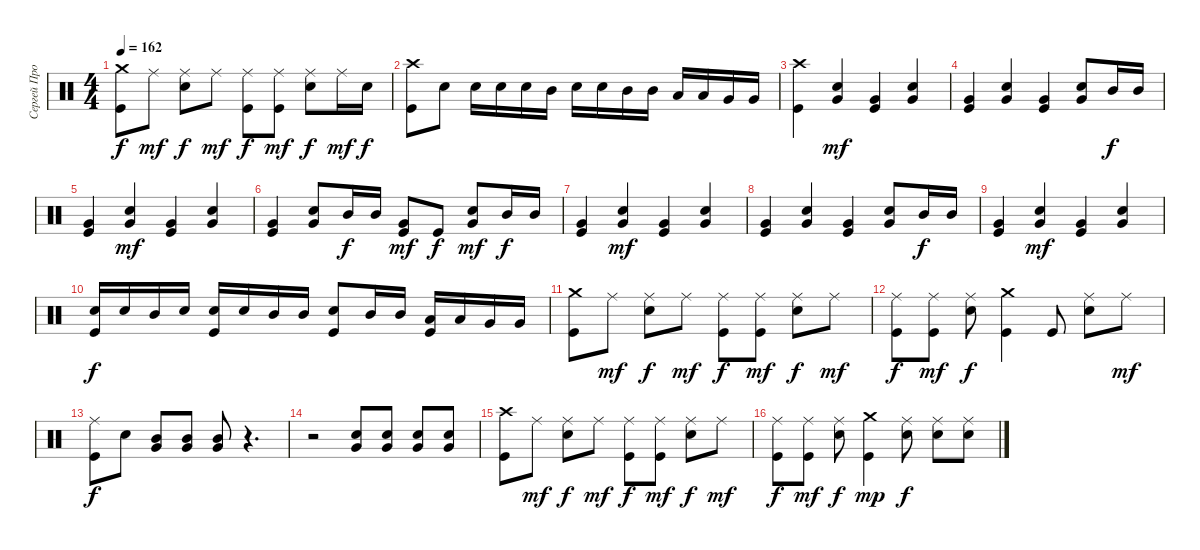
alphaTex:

\track ("Сергей Прокофьев" "Сергей Про") {instrument percussion}
\staff {score}
\articulation defaults
\ts (4 4)
\tempo 162
\clef neutral
\ks c
("Crash medium (hit)" "Kick (hit)").8{dy f} "Ride (middle)".8{dy mf} ("Ride (middle)" "Electric Snare (hit)").8{dy f} "Ride (middle)".8{dy mf} ("Ride (middle)" "Kick (hit)").8{dy f} ("Ride (middle)" "Kick (hit)").8{dy mf} ("Ride (middle)" "Electric Snare (hit)").8{dy f} "Ride (middle)".16{dy mf} "Electric Snare (hit)".16{dy f} |
("Crash high (hit)" "Kick (hit)").8 "Electric Snare (hit)".8 "Electric Snare (hit)".16 "Electric Snare (hit)".16 "Electric Snare (hit)".16 "Mid Tom (hit)".16 "Electric Snare (hit)".16 "Electric Snare (hit)".16 "Mid Tom (hit)".16 "Mid Tom (hit)".16 "Low Tom (hit)".16 "Low Tom (hit)".16 "Very Low Tom (hit)".16 "Very Low Tom (hit)".16 |
("Crash high (hit)" "Kick (hit)").4 ("Very Low Tom (hit)" "Electric Snare (hit)").4{dy mf} ("Very Low Tom (hit)" "Kick (hit)").4 ("Very Low Tom (hit)" "Electric Snare (hit)").4 |
("Very Low Tom (hit)" "Kick (hit)").4 ("Very Low Tom (hit)" "Electric Snare (hit)").4 ("Very Low Tom (hit)" "Kick (hit)").4 ("Very Low Tom (hit)" "Electric Snare (hit)").8 "Mid Tom (hit)".16{dy f} "Mid Tom (hit)".16 |
("Very Low Tom (hit)" "Kick (hit)").4 ("Very Low Tom (hit)" "Electric Snare (hit)").4{dy mf} ("Very Low Tom (hit)" "Kick (hit)").4 ("Very Low Tom (hit)" "Electric Snare (hit)").4 |
("Very Low Tom (hit)" "Kick (hit)").4 ("Very Low Tom (hit)" "Electric Snare (hit)").8 "Mid Tom (hit)".16{dy f} "Mid Tom (hit)".16 ("Very Low Tom (hit)" "Kick (hit)").8{dy mf} "Kick (hit)".8{dy f} ("Very Low Tom (hit)" "Electric Snare (hit)").8{dy mf} "Mid Tom (hit)".16{dy f} "Mid Tom (hit)".16 |
("Very Low Tom (hit)" "Kick (hit)").4 ("Very Low Tom (hit)" "Electric Snare (hit)").4{dy mf} ("Very Low Tom (hit)" "Kick (hit)").4 ("Very Low Tom (hit)" "Electric Snare (hit)").4 |
("Very Low Tom (hit)" "Kick (hit)").4 ("Very Low Tom (hit)" "Electric Snare (hit)").4 ("Very Low Tom (hit)" "Kick (hit)").4 ("Very Low Tom (hit)" "Electric Snare (hit)").8 "Mid Tom (hit)".16{dy f} "Mid Tom (hit)".16 |
("Very Low Tom (hit)" "Kick (hit)").4 ("Very Low Tom (hit)" "Electric Snare (hit)").4{dy mf} ("Very Low Tom (hit)" "Kick (hit)").4 ("Very Low Tom (hit)" "Electric Snare (hit)").4 |
("Electric Snare (hit)" "Kick (hit)").16{dy f} "Electric Snare (hit)".16 "Mid Tom (hit)".16 "Electric Snare (hit)".16 ("Electric Snare (hit)" "Kick (hit)").16 "Electric Snare (hit)".16 "Mid Tom (hit)".16 "Mid Tom (hit)".16 ("Electric Snare (hit)" "Kick (hit)").8 "Mid Tom (hit)".16 "Mid Tom (hit)".16 ("Low Tom (hit)" "Kick (hit)").16 "Low Tom (hit)".16 "Very Low Tom (hit)".16 "Very Low Tom (hit)".16 |
("Crash medium (hit)" "Kick (hit)").8 "Ride (middle)".8{dy mf} ("Ride (middle)" "Electric Snare (hit)").8{dy f} "Ride (middle)".8{dy mf} ("Ride (middle)" "Kick (hit)").8{dy f} ("Ride (middle)" "Kick (hit)").8{dy mf} ("Ride (middle)" "Electric Snare (hit)").8{dy f} "Ride (middle)".8{dy mf} |
("Ride (middle)" "Kick (hit)").8{dy f} ("Ride (middle)" "Kick (hit)").8{dy mf} ("Ride (middle)" "Electric Snare (hit)").8{dy f} ("Crash medium (hit)" "Kick (hit)").4 "Kick (hit)".8 ("Ride (middle)" "Electric Snare (hit)").8 "Ride (middle)".8{dy mf} |
("Ride (middle)" "Kick (hit)").8{dy f} "Electric Snare (hit)".8 ("Very Low Tom (hit)" "Mid Tom (hit)").8 ("Very Low Tom (hit)" "Mid Tom (hit)").8 ("Very Low Tom (hit)" "Mid Tom (hit)").8 r.4{d} |
r.2 ("Very Low Tom (hit)" "Electric Snare (hit)").8 ("Very Low Tom (hit)" "Electric Snare (hit)").8 ("Very Low Tom (hit)" "Electric Snare (hit)").8 ("Very Low Tom (hit)" "Electric Snare (hit)").8 |
("Crash high (hit)" "Kick (hit)").8 "Ride (middle)".8{dy mf} ("Ride (middle)" "Electric Snare (hit)").8{dy f} "Ride (middle)".8{dy mf} ("Ride (middle)" "Kick (hit)").8{dy f} ("Ride (middle)" "Kick (hit)").8{dy mf} ("Ride (middle)" "Electric Snare (hit)").8{dy f} "Ride (middle)".8{dy mf} |
("Ride (middle)" "Kick (hit)").8{dy f} ("Ride (middle)" "Kick (hit)").8{dy mf} ("Ride (middle)" "Electric Snare (hit)").8{dy f} ("Crash medium (hit)" "Kick (hit)").4{dy mp} ("Ride (middle)" "Electric Snare (hit)").8{dy f} ("Ride (middle)" "Electric Snare (hit)").8 ("Ride (middle)" "Electric Snare (hit)").8
